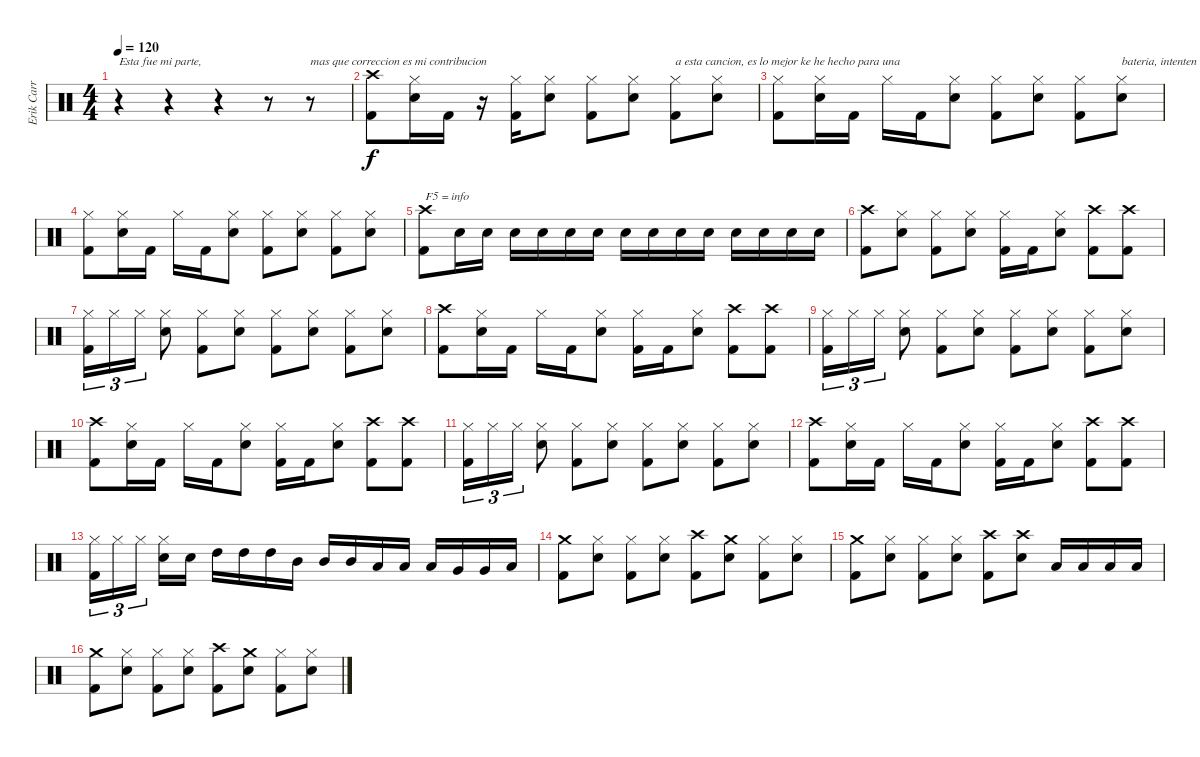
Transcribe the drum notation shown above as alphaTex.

\track ("Erik Carr / Drums" "Erik Carr ") {instrument percussion}
\staff {score}
\articulation defaults
\ts (4 4)
\tempo 120
\clef neutral
\ks c
r.4{txt "Esta fue mi parte, " dy f} r.4 r.4 r.8 r.8{txt "mas que correccion es mi contribucion"} |
("Crash high (hit)" "Kick (hit) 2").8 ("Hi-Hat (closed)" "Electric Snare (hit)").16 "Kick (hit) 2".16 r.16 ("Hi-Hat (closed)" "Kick (hit) 2").16 ("Hi-Hat (closed)" "Electric Snare (hit)").8 ("Hi-Hat (closed)" "Kick (hit) 2").8 ("Hi-Hat (closed)" "Electric Snare (hit)").8 ("Hi-Hat (closed)" "Kick (hit) 2").8{txt "a esta cancion, es lo mejor ke he hecho para una"} ("Hi-Hat (closed)" "Electric Snare (hit)").8 |
("Hi-Hat (closed)" "Kick (hit) 2").8 ("Hi-Hat (closed)" "Electric Snare (hit)").16 "Kick (hit) 2".16 "Hi-Hat (closed)".16 "Kick (hit) 2".16 ("Hi-Hat (closed)" "Electric Snare (hit)").8 ("Hi-Hat (closed)" "Kick (hit) 2").8 ("Hi-Hat (closed)" "Electric Snare (hit)").8 ("Hi-Hat (closed)" "Kick (hit) 2").8 ("Hi-Hat (closed)" "Electric Snare (hit)").8{txt "bateria, intenten mejorarla, si aceptan el reto"} |
("Hi-Hat (closed)" "Kick (hit) 2").8 ("Hi-Hat (closed)" "Electric Snare (hit)").16 "Kick (hit) 2".16 "Hi-Hat (closed)".16 "Kick (hit) 2".16 ("Hi-Hat (closed)" "Electric Snare (hit)").8 ("Hi-Hat (closed)" "Kick (hit) 2").8 ("Hi-Hat (closed)" "Electric Snare (hit)").8 ("Hi-Hat (closed)" "Kick (hit) 2").8 ("Hi-Hat (closed)" "Electric Snare (hit)").8 |
("Crash high (hit)" "Kick (hit) 2").8{txt "F5 = info"} "Electric Snare (hit)".16 "Electric Snare (hit)".16 "Electric Snare (hit)".16 "Electric Snare (hit)".16 "Electric Snare (hit)".16 "Electric Snare (hit)".16 "Electric Snare (hit)".16 "Electric Snare (hit)".16 "Electric Snare (hit)".16 "Electric Snare (hit)".16 "Electric Snare (hit)".16 "Electric Snare (hit)".16 "Electric Snare (hit)".16 "Electric Snare (hit)".16 |
("Crash high (hit)" "Kick (hit) 2").8 ("Hi-Hat (closed)" "Electric Snare (hit)").8 ("Hi-Hat (closed)" "Kick (hit) 2").8 ("Hi-Hat (closed)" "Electric Snare (hit)").8 ("Hi-Hat (closed)" "Kick (hit) 2").16 "Kick (hit) 2".16 ("Hi-Hat (closed)" "Electric Snare (hit)").8 ("Crash high (hit)" "Kick (hit) 2").8 ("Crash high (hit)" "Kick (hit) 2").8 |
("Hi-Hat (closed)" "Kick (hit) 2").16{tu (3 2)} "Hi-Hat (closed)".16{tu (3 2)} "Hi-Hat (closed)".16{tu (3 2)} ("Hi-Hat (closed)" "Electric Snare (hit)").8 ("Hi-Hat (closed)" "Kick (hit) 2").8 ("Hi-Hat (closed)" "Electric Snare (hit)").8 ("Hi-Hat (closed)" "Kick (hit) 2").8 ("Hi-Hat (closed)" "Electric Snare (hit)").8 ("Hi-Hat (closed)" "Kick (hit) 2").8 ("Hi-Hat (closed)" "Electric Snare (hit)").8 |
("Crash high (hit)" "Kick (hit) 2").8 ("Hi-Hat (closed)" "Electric Snare (hit)").16 "Kick (hit) 2".16 "Hi-Hat (closed)".16 "Kick (hit) 2".16 ("Hi-Hat (closed)" "Electric Snare (hit)").8 ("Hi-Hat (closed)" "Kick (hit) 2").16 "Kick (hit) 2".16 ("Hi-Hat (closed)" "Electric Snare (hit)").8 ("Crash high (hit)" "Kick (hit) 2").8 ("Crash high (hit)" "Kick (hit) 2").8 |
("Hi-Hat (closed)" "Kick (hit) 2").16{tu (3 2)} "Hi-Hat (closed)".16{tu (3 2)} "Hi-Hat (closed)".16{tu (3 2)} ("Hi-Hat (closed)" "Electric Snare (hit)").8 ("Hi-Hat (closed)" "Kick (hit) 2").8 ("Hi-Hat (closed)" "Electric Snare (hit)").8 ("Hi-Hat (closed)" "Kick (hit) 2").8 ("Hi-Hat (closed)" "Electric Snare (hit)").8 ("Hi-Hat (closed)" "Kick (hit) 2").8 ("Hi-Hat (closed)" "Electric Snare (hit)").8 |
("Crash high (hit)" "Kick (hit) 2").8 ("Hi-Hat (closed)" "Electric Snare (hit)").16 "Kick (hit) 2".16 "Hi-Hat (closed)".16 "Kick (hit) 2".16 ("Hi-Hat (closed)" "Electric Snare (hit)").8 ("Hi-Hat (closed)" "Kick (hit) 2").16 "Kick (hit) 2".16 ("Hi-Hat (closed)" "Electric Snare (hit)").8 ("Crash high (hit)" "Kick (hit) 2").8 ("Crash high (hit)" "Kick (hit) 2").8 |
("Hi-Hat (closed)" "Kick (hit) 2").16{tu (3 2)} "Hi-Hat (closed)".16{tu (3 2)} "Hi-Hat (closed)".16{tu (3 2)} ("Hi-Hat (closed)" "Electric Snare (hit)").8 ("Hi-Hat (closed)" "Kick (hit) 2").8 ("Hi-Hat (closed)" "Electric Snare (hit)").8 ("Hi-Hat (closed)" "Kick (hit) 2").8 ("Hi-Hat (closed)" "Electric Snare (hit)").8 ("Hi-Hat (closed)" "Kick (hit) 2").8 ("Hi-Hat (closed)" "Electric Snare (hit)").8 |
("Crash high (hit)" "Kick (hit) 2").8 ("Hi-Hat (closed)" "Electric Snare (hit)").16 "Kick (hit) 2".16 "Hi-Hat (closed)".16 "Kick (hit) 2".16 ("Hi-Hat (closed)" "Electric Snare (hit)").8 ("Hi-Hat (closed)" "Kick (hit) 2").16 "Kick (hit) 2".16 ("Hi-Hat (closed)" "Electric Snare (hit)").8 ("Crash high (hit)" "Kick (hit) 2").8 ("Crash high (hit)" "Kick (hit) 2").8 |
("Hi-Hat (closed)" "Kick (hit) 2").16{tu (3 2)} "Hi-Hat (closed)".16{tu (3 2)} "Hi-Hat (closed)".16{tu (3 2)} ("Hi-Hat (closed)" "Electric Snare (hit)").16 "Electric Snare (hit)".16 "High Tom (hit)".16 "High Tom (hit)".16 "High Tom (hit)".16 "Mid Tom (hit)".16 "Mid Tom (hit)".16 "Mid Tom (hit)".16 "Low Tom (hit)".16 "Low Tom (hit)".16 "Low Tom (hit)".16 "Very Low Tom (hit)".16 "Very Low Tom (hit)".16 "Low Floor Tom (hit)".16 |
("Crash medium (hit)" "Kick (hit) 2").8 ("Electric Snare (hit)" "Hi-Hat (closed)").8 ("Kick (hit) 2" "Hi-Hat (closed)").8 ("Electric Snare (hit)" "Hi-Hat (closed)").8 ("Crash high (hit)" "Kick (hit) 2").8 ("Electric Snare (hit)" "Crash medium (hit)").8 ("Kick (hit) 2" "Hi-Hat (closed)").8 ("Electric Snare (hit)" "Hi-Hat (closed)").8 |
("Kick (hit) 2" "Crash medium (hit)").8 ("Electric Snare (hit)" "Hi-Hat (closed)").8 ("Kick (hit) 2" "Hi-Hat (closed)").8 ("Electric Snare (hit)" "Hi-Hat (closed)").8 ("Kick (hit) 2" "Crash high (hit)").8 ("Electric Snare (hit)" "Crash high (hit)").8 "Low Tom (hit)".16 "Low Tom (hit)".16 "Low Tom (hit)".16 "Low Tom (hit)".16 |
("Crash medium (hit)" "Kick (hit) 2").8 ("Electric Snare (hit)" "Hi-Hat (closed)").8 ("Kick (hit) 2" "Hi-Hat (closed)").8 ("Electric Snare (hit)" "Hi-Hat (closed)").8 ("Crash high (hit)" "Kick (hit) 2").8 ("Electric Snare (hit)" "Crash medium (hit)").8 ("Kick (hit) 2" "Hi-Hat (closed)").8 ("Electric Snare (hit)" "Hi-Hat (closed)").8
